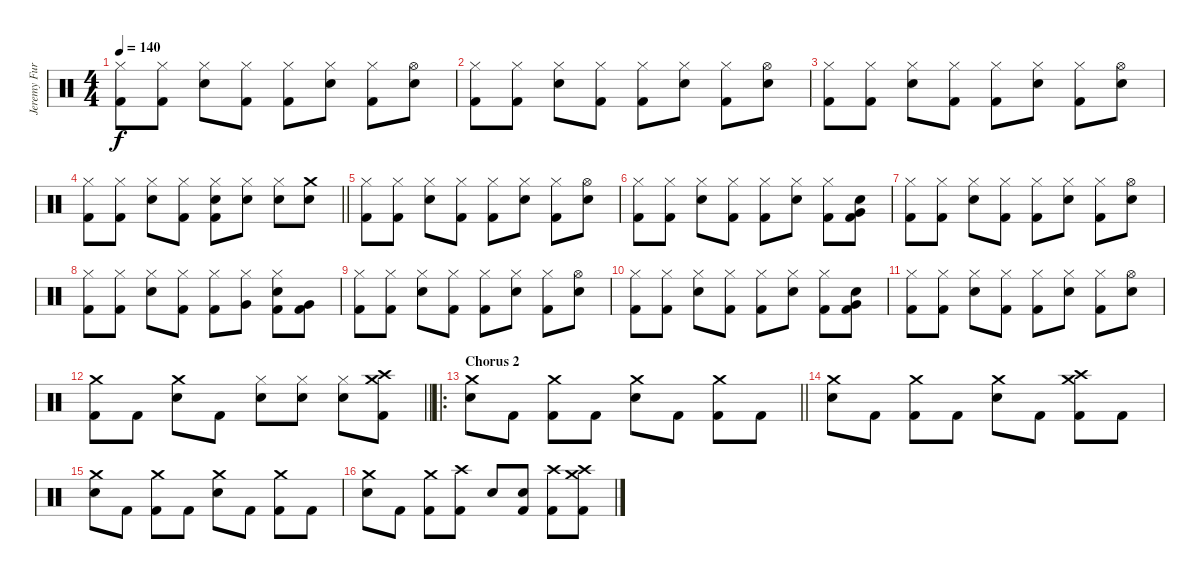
\track ("Jeremy Furstenfeld" "Jeremy Fur") {instrument percussion}
\staff {score}
\articulation defaults
\ts (4 4)
\tempo 140
\clef neutral
\ks c
("Hi-Hat (closed)" "Kick (hit) 2").8{dy f} ("Hi-Hat (closed)" "Kick (hit) 2").8 ("Hi-Hat (closed)" "Snare (hit) 2").8 ("Hi-Hat (closed)" "Kick (hit) 2").8 ("Hi-Hat (closed)" "Kick (hit) 2").8 ("Hi-Hat (closed)" "Snare (hit) 2").8 ("Hi-Hat (closed)" "Kick (hit) 2").8 ("Hi-Hat (open)" "Snare (hit) 2").8 |
("Hi-Hat (closed)" "Kick (hit) 2").8 ("Hi-Hat (closed)" "Kick (hit) 2").8 ("Hi-Hat (closed)" "Snare (hit) 2").8 ("Hi-Hat (closed)" "Kick (hit) 2").8 ("Hi-Hat (closed)" "Kick (hit) 2").8 ("Hi-Hat (closed)" "Snare (hit) 2").8 ("Hi-Hat (closed)" "Kick (hit) 2").8 ("Hi-Hat (open)" "Snare (hit) 2").8 |
("Hi-Hat (closed)" "Kick (hit) 2").8 ("Hi-Hat (closed)" "Kick (hit) 2").8 ("Hi-Hat (closed)" "Snare (hit) 2").8 ("Hi-Hat (closed)" "Kick (hit) 2").8 ("Hi-Hat (closed)" "Kick (hit) 2").8 ("Hi-Hat (closed)" "Snare (hit) 2").8 ("Hi-Hat (closed)" "Kick (hit) 2").8 ("Hi-Hat (open)" "Snare (hit) 2").8 |
\barLineRight lightlight
("Hi-Hat (closed)" "Kick (hit) 2").8 ("Hi-Hat (closed)" "Kick (hit) 2").8 ("Hi-Hat (closed)" "Snare (hit) 2").8 ("Hi-Hat (closed)" "Kick (hit) 2").8 ("Hi-Hat (closed)" "Snare (hit) 2" "Kick (hit) 2").8 ("Hi-Hat (closed)" "Snare (hit) 2").8 ("Hi-Hat (closed)" "Snare (hit) 2").8 ("Crash medium (hit)" "Snare (hit) 2").8 |
("Hi-Hat (closed)" "Kick (hit) 2").8 ("Hi-Hat (closed)" "Kick (hit) 2").8 ("Hi-Hat (closed)" "Snare (hit) 2").8 ("Hi-Hat (closed)" "Kick (hit) 2").8 ("Hi-Hat (closed)" "Kick (hit) 2").8 ("Hi-Hat (closed)" "Snare (hit) 2").8 ("Hi-Hat (closed)" "Kick (hit) 2").8 ("Hi-Hat (open)" "Snare (hit) 2").8 |
("Hi-Hat (closed)" "Kick (hit) 2").8 ("Hi-Hat (closed)" "Kick (hit) 2").8 ("Hi-Hat (closed)" "Snare (hit) 2").8 ("Hi-Hat (closed)" "Kick (hit) 2").8 ("Hi-Hat (closed)" "Kick (hit) 2").8 ("Hi-Hat (closed)" "Snare (hit) 2").8 ("Hi-Hat (closed)" "Kick (hit) 2").8 ("Snare (hit) 2" "Very Low Tom (hit)" "Kick (hit) 2").8 |
("Hi-Hat (closed)" "Kick (hit) 2").8 ("Hi-Hat (closed)" "Kick (hit) 2").8 ("Hi-Hat (closed)" "Snare (hit) 2").8 ("Hi-Hat (closed)" "Kick (hit) 2").8 ("Hi-Hat (closed)" "Kick (hit) 2").8 ("Hi-Hat (closed)" "Snare (hit) 2").8 ("Hi-Hat (closed)" "Kick (hit) 2").8 ("Hi-Hat (open)" "Snare (hit) 2").8 |
("Hi-Hat (closed)" "Kick (hit) 2").8 ("Hi-Hat (closed)" "Kick (hit) 2").8 ("Hi-Hat (closed)" "Snare (hit) 2").8 ("Hi-Hat (closed)" "Kick (hit) 2").8 ("Hi-Hat (closed)" "Kick (hit) 2").8 ("Hi-Hat (closed)" "Very Low Tom (hit)").8 ("Hi-Hat (closed)" "Snare (hit) 2" "Kick (hit) 2").8 ("Very Low Tom (hit)" "Kick (hit) 2").8 |
("Hi-Hat (closed)" "Kick (hit) 2").8 ("Hi-Hat (closed)" "Kick (hit) 2").8 ("Hi-Hat (closed)" "Snare (hit) 2").8 ("Hi-Hat (closed)" "Kick (hit) 2").8 ("Hi-Hat (closed)" "Kick (hit) 2").8 ("Hi-Hat (closed)" "Snare (hit) 2").8 ("Hi-Hat (closed)" "Kick (hit) 2").8 ("Hi-Hat (open)" "Snare (hit) 2").8 |
("Hi-Hat (closed)" "Kick (hit) 2").8 ("Hi-Hat (closed)" "Kick (hit) 2").8 ("Hi-Hat (closed)" "Snare (hit) 2").8 ("Hi-Hat (closed)" "Kick (hit) 2").8 ("Hi-Hat (closed)" "Kick (hit) 2").8 ("Hi-Hat (closed)" "Snare (hit) 2").8 ("Hi-Hat (closed)" "Kick (hit) 2").8 ("Snare (hit) 2" "Very Low Tom (hit)" "Kick (hit) 2").8 |
("Hi-Hat (closed)" "Kick (hit) 2").8 ("Hi-Hat (closed)" "Kick (hit) 2").8 ("Hi-Hat (closed)" "Snare (hit) 2").8 ("Hi-Hat (closed)" "Kick (hit) 2").8 ("Hi-Hat (closed)" "Kick (hit) 2").8 ("Hi-Hat (closed)" "Snare (hit) 2").8 ("Hi-Hat (closed)" "Kick (hit) 2").8 ("Hi-Hat (open)" "Snare (hit) 2").8 |
\barLineRight lightlight
("Crash medium (hit)" "Kick (hit) 2").8 "Kick (hit) 2".8 ("Crash medium (hit)" "Snare (hit) 2").8 "Kick (hit) 2".8 ("Hi-Hat (closed)" "Snare (hit) 2").8 ("Hi-Hat (closed)" "Snare (hit) 2").8 ("Hi-Hat (closed)" "Snare (hit) 2").8 ("Crash medium (hit)" "Crash high (hit)" "Kick (hit) 2").8 |
\ro
\section ("" "Chorus 2")
\barLineRight lightlight
("Crash medium (hit)" "Snare (hit) 2").8 "Kick (hit) 2".8 ("Crash medium (hit)" "Kick (hit) 2").8 "Kick (hit) 2".8 ("Crash medium (hit)" "Snare (hit) 2").8 "Kick (hit) 2".8 ("Crash medium (hit)" "Kick (hit) 2").8 "Kick (hit) 2".8 |
("Crash medium (hit)" "Snare (hit) 2").8 "Kick (hit) 2".8 ("Crash medium (hit)" "Kick (hit) 2").8 "Kick (hit) 2".8 ("Crash medium (hit)" "Snare (hit) 2").8 "Kick (hit) 2".8 ("Crash medium (hit)" "Crash high (hit)" "Kick (hit) 2").8 "Kick (hit) 2".8 |
("Crash medium (hit)" "Snare (hit) 2").8 "Kick (hit) 2".8 ("Crash medium (hit)" "Kick (hit) 2").8 "Kick (hit) 2".8 ("Crash medium (hit)" "Snare (hit) 2").8 "Kick (hit) 2".8 ("Crash medium (hit)" "Kick (hit) 2").8 "Kick (hit) 2".8 |
("Crash medium (hit)" "Snare (hit) 2").8 "Kick (hit) 2".8 ("Crash medium (hit)" "Kick (hit) 2").8 ("Crash high (hit)" "Kick (hit) 2").8 "Snare (hit) 2".8 ("Snare (hit) 2" "Kick (hit) 2").8 ("Crash high (hit)" "Kick (hit) 2").8 ("Crash medium (hit)" "Crash high (hit)" "Kick (hit) 2").8
